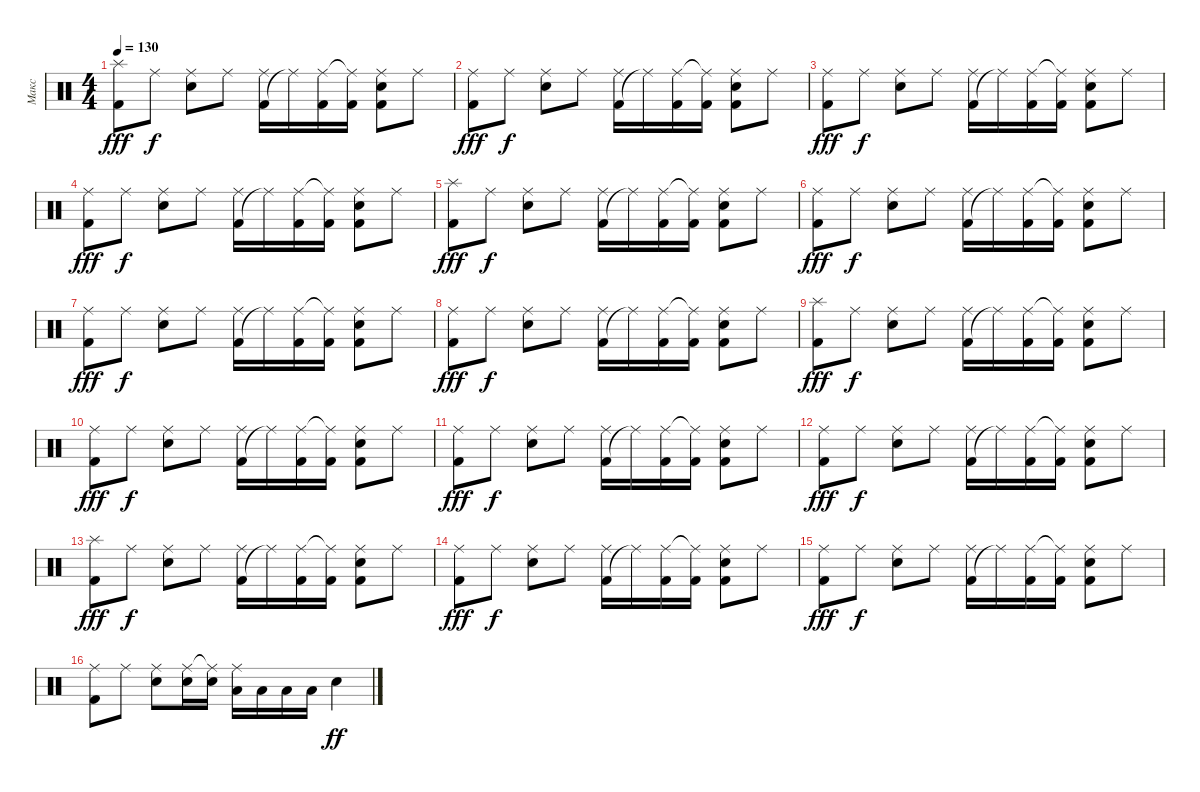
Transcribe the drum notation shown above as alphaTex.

\track ("Макс" "Макс") {instrument percussion}
\staff {score}
\articulation defaults
\ts (4 4)
\tempo 130
\clef neutral
\ks c
("Kick (hit) 2" "Splash (hit)").8{dy fff} "Ride (middle)".8{dy f} ("Ride (middle)" "Electric Snare (hit)").8 "Ride (middle)".8 ("Kick (hit) 2" "Ride (middle)").16 "Ride (middle)"{t}.16 ("Kick (hit) 2" "Ride (middle)").16 ("Kick (hit) 2" "Ride (middle)"{t}).16 ("Kick (hit) 2" "Ride (middle)" "Electric Snare (hit)").8 "Ride (middle)".8 |
("Kick (hit) 2" "Ride (middle)").8{dy fff} "Ride (middle)".8{dy f} ("Ride (middle)" "Electric Snare (hit)").8 "Ride (middle)".8 ("Kick (hit) 2" "Ride (middle)").16 "Ride (middle)"{t}.16 ("Kick (hit) 2" "Ride (middle)").16 ("Kick (hit) 2" "Ride (middle)"{t}).16 ("Kick (hit) 2" "Ride (middle)" "Electric Snare (hit)").8 "Ride (middle)".8 |
("Kick (hit) 2" "Ride (middle)").8{dy fff} "Ride (middle)".8{dy f} ("Ride (middle)" "Electric Snare (hit)").8 "Ride (middle)".8 ("Kick (hit) 2" "Ride (middle)").16 "Ride (middle)"{t}.16 ("Kick (hit) 2" "Ride (middle)").16 ("Kick (hit) 2" "Ride (middle)"{t}).16 ("Kick (hit) 2" "Ride (middle)" "Electric Snare (hit)").8 "Ride (middle)".8 |
("Kick (hit) 2" "Ride (middle)").8{dy fff} "Ride (middle)".8{dy f} ("Ride (middle)" "Electric Snare (hit)").8 "Ride (middle)".8 ("Kick (hit) 2" "Ride (middle)").16 "Ride (middle)"{t}.16 ("Kick (hit) 2" "Ride (middle)").16 ("Kick (hit) 2" "Ride (middle)"{t}).16 ("Kick (hit) 2" "Ride (middle)" "Electric Snare (hit)").8 "Ride (middle)".8 |
("Kick (hit) 2" "Splash (hit)").8{dy fff} "Ride (middle)".8{dy f} ("Ride (middle)" "Electric Snare (hit)").8 "Ride (middle)".8 ("Kick (hit) 2" "Ride (middle)").16 "Ride (middle)"{t}.16 ("Kick (hit) 2" "Ride (middle)").16 ("Kick (hit) 2" "Ride (middle)"{t}).16 ("Kick (hit) 2" "Ride (middle)" "Electric Snare (hit)").8 "Ride (middle)".8 |
("Kick (hit) 2" "Ride (middle)").8{dy fff} "Ride (middle)".8{dy f} ("Ride (middle)" "Electric Snare (hit)").8 "Ride (middle)".8 ("Kick (hit) 2" "Ride (middle)").16 "Ride (middle)"{t}.16 ("Kick (hit) 2" "Ride (middle)").16 ("Kick (hit) 2" "Ride (middle)"{t}).16 ("Kick (hit) 2" "Ride (middle)" "Electric Snare (hit)").8 "Ride (middle)".8 |
("Kick (hit) 2" "Ride (middle)").8{dy fff} "Ride (middle)".8{dy f} ("Ride (middle)" "Electric Snare (hit)").8 "Ride (middle)".8 ("Kick (hit) 2" "Ride (middle)").16 "Ride (middle)"{t}.16 ("Kick (hit) 2" "Ride (middle)").16 ("Kick (hit) 2" "Ride (middle)"{t}).16 ("Kick (hit) 2" "Ride (middle)" "Electric Snare (hit)").8 "Ride (middle)".8 |
("Kick (hit) 2" "Ride (middle)").8{dy fff} "Ride (middle)".8{dy f} ("Ride (middle)" "Electric Snare (hit)").8 "Ride (middle)".8 ("Kick (hit) 2" "Ride (middle)").16 "Ride (middle)"{t}.16 ("Kick (hit) 2" "Ride (middle)").16 ("Kick (hit) 2" "Ride (middle)"{t}).16 ("Kick (hit) 2" "Ride (middle)" "Electric Snare (hit)").8 "Ride (middle)".8 |
("Kick (hit) 2" "Splash (hit)").8{dy fff} "Ride (middle)".8{dy f} ("Ride (middle)" "Electric Snare (hit)").8 "Ride (middle)".8 ("Kick (hit) 2" "Ride (middle)").16 "Ride (middle)"{t}.16 ("Kick (hit) 2" "Ride (middle)").16 ("Kick (hit) 2" "Ride (middle)"{t}).16 ("Kick (hit) 2" "Ride (middle)" "Electric Snare (hit)").8 "Ride (middle)".8 |
("Kick (hit) 2" "Ride (middle)").8{dy fff} "Ride (middle)".8{dy f} ("Ride (middle)" "Electric Snare (hit)").8 "Ride (middle)".8 ("Kick (hit) 2" "Ride (middle)").16 "Ride (middle)"{t}.16 ("Kick (hit) 2" "Ride (middle)").16 ("Kick (hit) 2" "Ride (middle)"{t}).16 ("Kick (hit) 2" "Ride (middle)" "Electric Snare (hit)").8 "Ride (middle)".8 |
("Kick (hit) 2" "Ride (middle)").8{dy fff} "Ride (middle)".8{dy f} ("Ride (middle)" "Electric Snare (hit)").8 "Ride (middle)".8 ("Kick (hit) 2" "Ride (middle)").16 "Ride (middle)"{t}.16 ("Kick (hit) 2" "Ride (middle)").16 ("Kick (hit) 2" "Ride (middle)"{t}).16 ("Kick (hit) 2" "Ride (middle)" "Electric Snare (hit)").8 "Ride (middle)".8 |
("Kick (hit) 2" "Ride (middle)").8{dy fff} "Ride (middle)".8{dy f} ("Ride (middle)" "Electric Snare (hit)").8 "Ride (middle)".8 ("Kick (hit) 2" "Ride (middle)").16 "Ride (middle)"{t}.16 ("Kick (hit) 2" "Ride (middle)").16 ("Kick (hit) 2" "Ride (middle)"{t}).16 ("Kick (hit) 2" "Ride (middle)" "Electric Snare (hit)").8 "Ride (middle)".8 |
("Kick (hit) 2" "Splash (hit)").8{dy fff} "Ride (middle)".8{dy f} ("Ride (middle)" "Electric Snare (hit)").8 "Ride (middle)".8 ("Kick (hit) 2" "Ride (middle)").16 "Ride (middle)"{t}.16 ("Kick (hit) 2" "Ride (middle)").16 ("Kick (hit) 2" "Ride (middle)"{t}).16 ("Kick (hit) 2" "Ride (middle)" "Electric Snare (hit)").8 "Ride (middle)".8 |
("Kick (hit) 2" "Ride (middle)").8{dy fff} "Ride (middle)".8{dy f} ("Ride (middle)" "Electric Snare (hit)").8 "Ride (middle)".8 ("Kick (hit) 2" "Ride (middle)").16 "Ride (middle)"{t}.16 ("Kick (hit) 2" "Ride (middle)").16 ("Kick (hit) 2" "Ride (middle)"{t}).16 ("Kick (hit) 2" "Ride (middle)" "Electric Snare (hit)").8 "Ride (middle)".8 |
("Kick (hit) 2" "Ride (middle)").8{dy fff} "Ride (middle)".8{dy f} ("Ride (middle)" "Electric Snare (hit)").8 "Ride (middle)".8 ("Kick (hit) 2" "Ride (middle)").16 "Ride (middle)"{t}.16 ("Kick (hit) 2" "Ride (middle)").16 ("Kick (hit) 2" "Ride (middle)"{t}).16 ("Kick (hit) 2" "Ride (middle)" "Electric Snare (hit)").8 "Ride (middle)".8 |
("Ride (middle)" "Kick (hit) 2").8 "Ride (middle)".8 ("Ride (middle)" "Electric Snare (hit)").8 ("Electric Snare (hit)" "Ride (middle)").16 ("Electric Snare (hit)" "Ride (middle)"{t}).16 ("Ride (middle)" "Low Tom (hit)").16 "Low Tom (hit)".16 "Low Tom (hit)".16 "Low Tom (hit)".16 "Electric Snare (hit)".4{dy ff}
